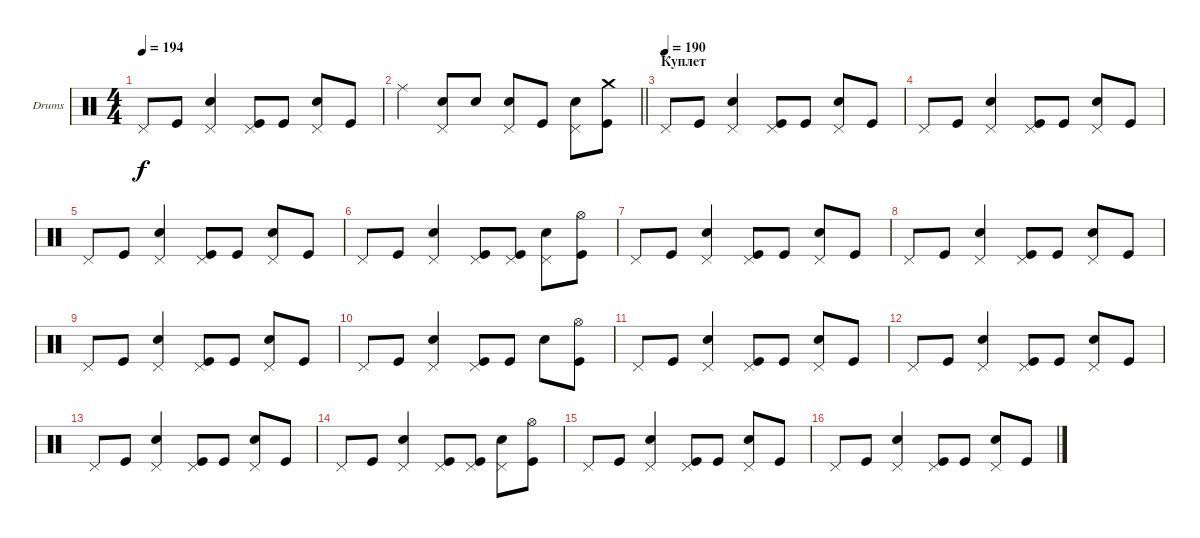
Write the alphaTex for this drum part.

\bracketExtendMode groupsimilarinstruments
\firstSystemTrackNameOrientation horizontal
\otherSystemsTrackNameOrientation horizontal
\track ("Максим Удалов" "Drums") {instrument percussion}
\staff {score}
\articulation defaults
\ts (4 4)
\tempo 194
\clef neutral
\ks c "Pedal Hi-Hat (hit)".8{dy f} "Kick (hit)".8
("Snare (hit) 2" "Pedal Hi-Hat (hit)").4 ("Kick (hit)" "Pedal Hi-Hat (hit)").8 "Kick (hit)".8 ("Snare (hit) 2" "Pedal Hi-Hat (hit)").8 "Kick (hit)".8 |
\barLineRight lightlight "Ride (middle)".4
("Snare (hit) 2" "Pedal Hi-Hat (hit)").8 "Snare (hit) 2".8 ("Snare (hit) 2" "Pedal Hi-Hat (hit)").8 "Kick (hit)".8 ("Snare (hit) 2" "Pedal Hi-Hat (hit)").8 ("Kick (hit)" "Crash medium (hit)").8 |
\section ("" "Куплет")
\tempo (190)
"Pedal Hi-Hat (hit)".8 "Kick (hit)".8 ("Snare (hit) 2" "Pedal Hi-Hat (hit)").4 ("Kick (hit)" "Pedal Hi-Hat (hit)").8 "Kick (hit)".8 ("Snare (hit) 2" "Pedal Hi-Hat (hit)").8 "Kick (hit)".8 |
"Pedal Hi-Hat (hit)".8 "Kick (hit)".8 ("Snare (hit) 2" "Pedal Hi-Hat (hit)").4 ("Kick (hit)" "Pedal Hi-Hat (hit)").8 "Kick (hit)".8 ("Snare (hit) 2" "Pedal Hi-Hat (hit)").8 "Kick (hit)".8 |
"Pedal Hi-Hat (hit)".8 "Kick (hit)".8 ("Snare (hit) 2" "Pedal Hi-Hat (hit)").4 ("Kick (hit)" "Pedal Hi-Hat (hit)").8 "Kick (hit)".8 ("Snare (hit) 2" "Pedal Hi-Hat (hit)").8 "Kick (hit)".8 |
"Pedal Hi-Hat (hit)".8 "Kick (hit)".8 ("Snare (hit) 2" "Pedal Hi-Hat (hit)").4 ("Kick (hit)" "Pedal Hi-Hat (hit)").8 ("Kick (hit)" "Pedal Hi-Hat (hit)").8 ("Snare (hit) 2" "Pedal Hi-Hat (hit)").8 ("Kick (hit)" "Hi-Hat (open)").8 |
"Pedal Hi-Hat (hit)".8 "Kick (hit)".8 ("Snare (hit) 2" "Pedal Hi-Hat (hit)").4 ("Kick (hit)" "Pedal Hi-Hat (hit)").8 "Kick (hit)".8 ("Snare (hit) 2" "Pedal Hi-Hat (hit)").8 "Kick (hit)".8 |
"Pedal Hi-Hat (hit)".8 "Kick (hit)".8 ("Snare (hit) 2" "Pedal Hi-Hat (hit)").4 ("Kick (hit)" "Pedal Hi-Hat (hit)").8 "Kick (hit)".8 ("Snare (hit) 2" "Pedal Hi-Hat (hit)").8 "Kick (hit)".8 |
"Pedal Hi-Hat (hit)".8 "Kick (hit)".8 ("Snare (hit) 2" "Pedal Hi-Hat (hit)").4 ("Kick (hit)" "Pedal Hi-Hat (hit)").8 "Kick (hit)".8 ("Snare (hit) 2" "Pedal Hi-Hat (hit)").8 "Kick (hit)".8 |
"Pedal Hi-Hat (hit)".8 "Kick (hit)".8 ("Snare (hit) 2" "Pedal Hi-Hat (hit)").4 ("Kick (hit)" "Pedal Hi-Hat (hit)").8 "Kick (hit)".8 "Snare (hit) 2".8 ("Kick (hit)" "Hi-Hat (open)").8 |
"Pedal Hi-Hat (hit)".8 "Kick (hit)".8 ("Snare (hit) 2" "Pedal Hi-Hat (hit)").4 ("Kick (hit)" "Pedal Hi-Hat (hit)").8 "Kick (hit)".8 ("Snare (hit) 2" "Pedal Hi-Hat (hit)").8 "Kick (hit)".8 |
"Pedal Hi-Hat (hit)".8 "Kick (hit)".8 ("Snare (hit) 2" "Pedal Hi-Hat (hit)").4 ("Kick (hit)" "Pedal Hi-Hat (hit)").8 "Kick (hit)".8 ("Snare (hit) 2" "Pedal Hi-Hat (hit)").8 "Kick (hit)".8 |
"Pedal Hi-Hat (hit)".8 "Kick (hit)".8 ("Snare (hit) 2" "Pedal Hi-Hat (hit)").4 ("Kick (hit)" "Pedal Hi-Hat (hit)").8 "Kick (hit)".8 ("Snare (hit) 2" "Pedal Hi-Hat (hit)").8 "Kick (hit)".8 |
"Pedal Hi-Hat (hit)".8 "Kick (hit)".8 ("Snare (hit) 2" "Pedal Hi-Hat (hit)").4 ("Kick (hit)" "Pedal Hi-Hat (hit)").8 ("Kick (hit)" "Pedal Hi-Hat (hit)").8 ("Snare (hit) 2" "Pedal Hi-Hat (hit)").8 ("Kick (hit)" "Hi-Hat (open)").8 |
"Pedal Hi-Hat (hit)".8 "Kick (hit)".8 ("Snare (hit) 2" "Pedal Hi-Hat (hit)").4 ("Kick (hit)" "Pedal Hi-Hat (hit)").8 "Kick (hit)".8 ("Snare (hit) 2" "Pedal Hi-Hat (hit)").8 "Kick (hit)".8 |
"Pedal Hi-Hat (hit)".8 "Kick (hit)".8 ("Snare (hit) 2" "Pedal Hi-Hat (hit)").4 ("Kick (hit)" "Pedal Hi-Hat (hit)").8 "Kick (hit)".8 ("Snare (hit) 2" "Pedal Hi-Hat (hit)").8 "Kick (hit)".8
